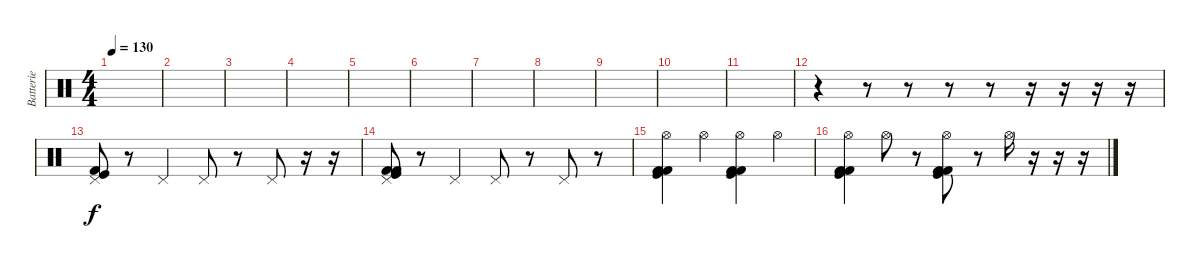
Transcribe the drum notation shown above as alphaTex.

\track ("Batterie" "Batterie") {instrument percussion}
\staff {score}
\articulation defaults
\ts (4 4)
\tempo 130
\clef neutral
\ks c
|
|
|
|
|
|
|
|
|
|
|
r.4 r.8 r.8 r.8 r.8 r.16 r.16 r.16 r.16 |
("Pedal Hi-Hat (hit)" "Kick (hit)" "Kick (hit) 2").8 r.8 "Pedal Hi-Hat (hit)".4 "Pedal Hi-Hat (hit)".8 r.8 "Pedal Hi-Hat (hit)".8 r.16 r.16 |
("Pedal Hi-Hat (hit)" "Kick (hit) 2" "Kick (hit) 2" "Kick (hit)").8 r.8 "Pedal Hi-Hat (hit)".4 "Pedal Hi-Hat (hit)".8 r.8 "Pedal Hi-Hat (hit)".8 r.8 |
("Hi-Hat (open)" "Kick (hit) 2" "Kick (hit) 2" "Kick (hit)").4 "Hi-Hat (open)".4 ("Hi-Hat (open)" "Kick (hit) 2" "Kick (hit)" "Kick (hit) 2").4 "Hi-Hat (open)".4 |
("Hi-Hat (open)" "Kick (hit) 2" "Kick (hit) 2" "Kick (hit)").4 "Hi-Hat (open)".8 r.8 ("Hi-Hat (open)" "Kick (hit) 2" "Kick (hit) 2" "Kick (hit)").8 r.8 "Hi-Hat (open)".16 r.16 r.16 r.16
